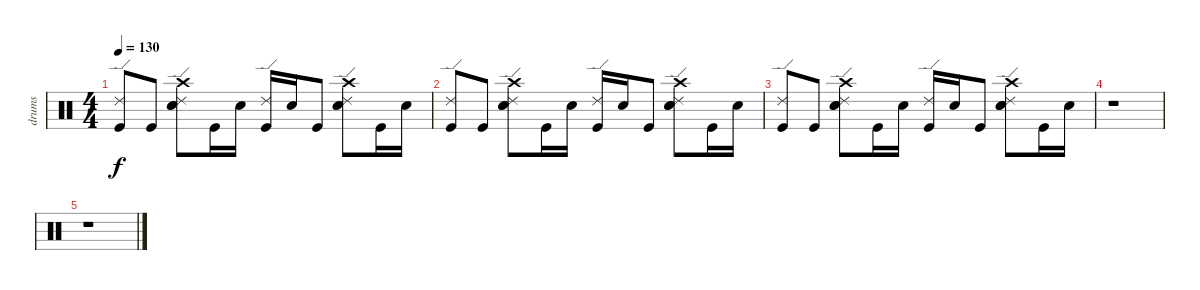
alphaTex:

\track ("drums" "drums") {instrument percussion}
\staff {score}
\articulation defaults
\ts (4 4)
\tempo 130
\clef neutral
\ks c
("Kick (hit)" "Ride (edge) 2").8{dy f} "Kick (hit)".8 ("Electric Snare (hit)" "Snare (hit) 2" "Crash high (hit)" "Ride (edge) 2").8 "Kick (hit)".16 "Snare (hit) 2".16 ("Kick (hit)" "Ride (edge) 2").16 "Snare (hit) 2".16 "Kick (hit)".8 ("Snare (hit) 2" "Electric Snare (hit)" "Crash high (hit)" "Ride (edge) 2").8 "Kick (hit)".16 "Snare (hit) 2".16 |
("Kick (hit)" "Ride (edge) 2").8 "Kick (hit)".8 ("Electric Snare (hit)" "Snare (hit) 2" "Crash high (hit)" "Ride (edge) 2").8 "Kick (hit)".16 "Snare (hit) 2".16 ("Kick (hit)" "Ride (edge) 2").16 "Snare (hit) 2".16 "Kick (hit)".8 ("Snare (hit) 2" "Electric Snare (hit)" "Crash high (hit)" "Ride (edge) 2").8 "Kick (hit)".16 "Snare (hit) 2".16 |
("Ride (edge) 2" "Kick (hit)").8 "Kick (hit)".8 ("Electric Snare (hit)" "Snare (hit) 2" "Crash high (hit)" "Ride (edge) 2").8 "Kick (hit)".16 "Snare (hit) 2".16 ("Kick (hit)" "Ride (edge) 2").16 "Snare (hit) 2".16 "Kick (hit)".8 ("Snare (hit) 2" "Electric Snare (hit)" "Crash high (hit)" "Ride (edge) 2").8 "Kick (hit)".16 "Snare (hit) 2".16 |
r.1 |
r.1
